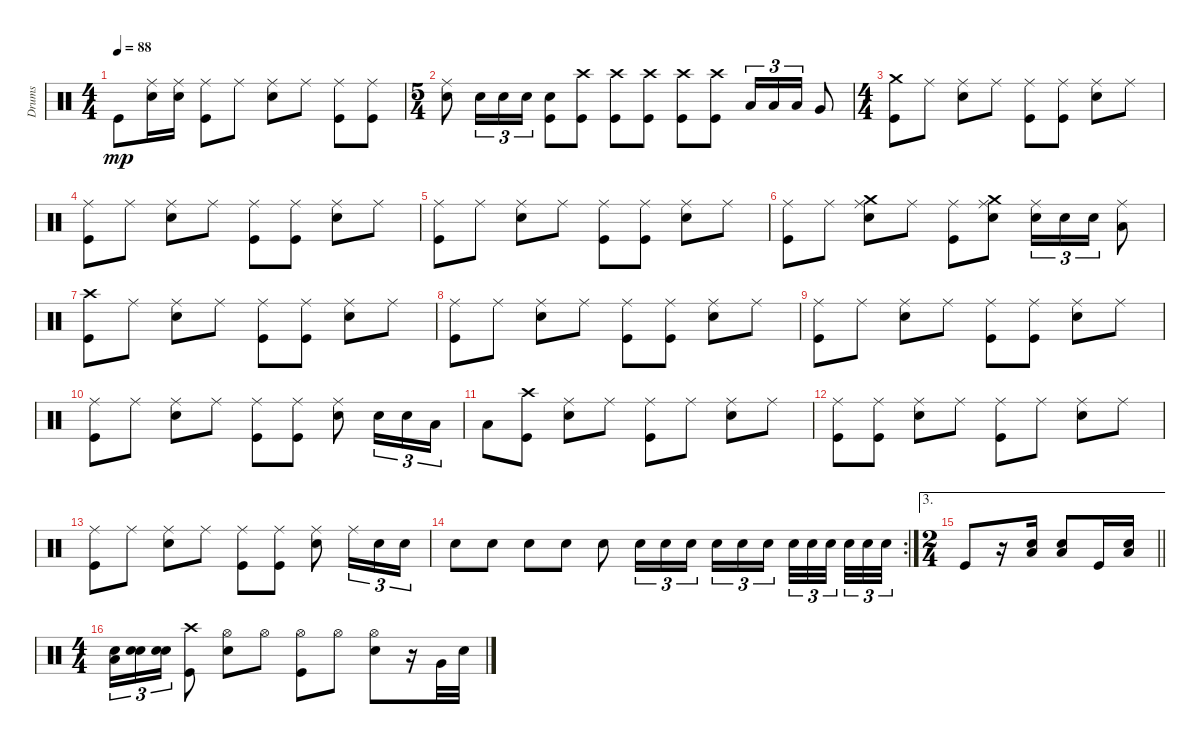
\track ("Drums" "Drums") {instrument percussion}
\staff {score}
\articulation defaults
\ts (4 4)
\tempo 88
\clef neutral
\ks c "Kick (hit)".8{dy mp}
("Snare (hit) 2" "Ride (middle)").16 ("Snare (hit) 2" "Ride (middle)").16 ("Ride (middle)" "Kick (hit)").8 "Ride (middle)".8 ("Ride (middle)" "Snare (hit) 2").8 "Ride (middle)".8 ("Kick (hit)" "Ride (middle)").8 ("Ride (middle)" "Kick (hit)").8 |
\ts (5 4)
("Snare (hit) 2" "Ride (middle)").8 "Snare (hit) 2".16{tu (3 2)} "Snare (hit) 2".16{tu (3 2)} "Snare (hit) 2".16{tu (3 2)} ("Kick (hit)" "Snare (hit) 2").8 ("Kick (hit)" "Crash high (hit)").8 ("Crash high (hit)" "Kick (hit)").8 ("Kick (hit)" "Crash high (hit)").8 ("Crash high (hit)" "Kick (hit)").8 ("Crash high (hit)" "Kick (hit)").8 "Low Tom (hit)".16{tu (3 2)} "Low Tom (hit)".16{tu (3 2)} "Low Tom (hit)".16{tu (3 2)} "Very Low Tom (hit)".8 |
\ts (4 4)
("Crash medium (hit)" "Kick (hit)").8 "Ride (middle)".8 ("Ride (middle)" "Snare (hit) 2").8 "Ride (middle)".8 ("Kick (hit)" "Ride (middle)").8 ("Ride (middle)" "Kick (hit)").8 ("Snare (hit) 2" "Ride (middle)").8 "Ride (middle)".8 |
("Ride (middle)" "Kick (hit)").8 "Ride (middle)".8 ("Ride (middle)" "Snare (hit) 2").8 "Ride (middle)".8 ("Kick (hit)" "Ride (middle)").8 ("Ride (middle)" "Kick (hit)").8 ("Snare (hit) 2" "Ride (middle)").8 "Ride (middle)".8 |
("Ride (middle)" "Kick (hit)").8 "Ride (middle)".8 ("Ride (middle)" "Snare (hit) 2").8 "Ride (middle)".8 ("Kick (hit)" "Ride (middle)").8 ("Ride (middle)" "Kick (hit)").8 ("Snare (hit) 2" "Ride (middle)").8 "Ride (middle)".8 |
("Ride (middle)" "Kick (hit)").8 "Ride (middle)".8 ("Crash medium (hit)" "Ride (middle)" "Snare (hit) 2").8 "Ride (middle)".8 ("Kick (hit)" "Ride (middle)").8 ("Crash medium (hit)" "Ride (middle)" "Snare (hit) 2").8 ("Snare (hit) 2" "Ride (middle)").16{tu (3 2)} "Snare (hit) 2".16{tu (3 2)} "Snare (hit) 2".16{tu (3 2)} ("Low Tom (hit)" "Ride (middle)").8 |
("Crash high (hit)" "Kick (hit)").8 "Ride (middle)".8 ("Ride (middle)" "Snare (hit) 2").8 "Ride (middle)".8 ("Kick (hit)" "Ride (middle)").8 ("Ride (middle)" "Kick (hit)").8 ("Snare (hit) 2" "Ride (middle)").8 "Ride (middle)".8 |
("Ride (middle)" "Kick (hit)").8 "Ride (middle)".8 ("Ride (middle)" "Snare (hit) 2").8 "Ride (middle)".8 ("Kick (hit)" "Ride (middle)").8 ("Ride (middle)" "Kick (hit)").8 ("Snare (hit) 2" "Ride (middle)").8 "Ride (middle)".8 |
("Ride (middle)" "Kick (hit)").8 "Ride (middle)".8 ("Ride (middle)" "Snare (hit) 2").8 "Ride (middle)".8 ("Kick (hit)" "Ride (middle)").8 ("Ride (middle)" "Kick (hit)").8 ("Snare (hit) 2" "Ride (middle)").8 "Ride (middle)".8 |
("Ride (middle)" "Kick (hit)").8 "Ride (middle)".8 ("Ride (middle)" "Snare (hit) 2").8 "Ride (middle)".8 ("Kick (hit)" "Ride (middle)").8 ("Ride (middle)" "Kick (hit)").8 ("Snare (hit) 2" "Ride (middle)").8 "Snare (hit) 2".16{tu (3 2)} "Snare (hit) 2".16{tu (3 2)} "Low Tom (hit)".16{tu (3 2)} |
"Low Tom (hit)".8 ("Crash high (hit)" "Kick (hit)").8 ("Ride (middle)" "Snare (hit) 2").8 "Ride (middle)".8 ("Kick (hit)" "Ride (middle)").8 "Ride (middle)".8 ("Snare (hit) 2" "Ride (middle)").8 "Ride (middle)".8 |
("Ride (middle)" "Kick (hit)").8 ("Ride (middle)" "Kick (hit)").8 ("Ride (middle)" "Snare (hit) 2").8 "Ride (middle)".8 ("Kick (hit)" "Ride (middle)").8 "Ride (middle)".8 ("Snare (hit) 2" "Ride (middle)").8 "Ride (middle)".8 |
("Ride (middle)" "Kick (hit)").8 "Ride (middle)".8 ("Ride (middle)" "Snare (hit) 2").8 "Ride (middle)".8 ("Kick (hit)" "Ride (middle)").8 ("Ride (middle)" "Kick (hit)").8 ("Snare (hit) 2" "Ride (middle)").8 "Ride (middle)".16{tu (3 2)} "Snare (hit) 2".16{tu (3 2)} "Snare (hit) 2".16{tu (3 2)} |
\rc 2 "Snare (hit) 2".8 "Snare (hit) 2".8 "Snare (hit) 2".8 "Snare (hit) 2".8 "Snare (hit) 2".8 "Snare (hit) 2".16{tu (3 2)} "Snare (hit) 2".16{tu (3 2)} "Snare (hit) 2".16{tu (3 2)} "Snare (hit) 2".16{tu (3 2)} "Snare (hit) 2".16{tu (3 2)} "Snare (hit) 2".16{tu (3 2) beam splitsecondary} "Snare (hit) 2".32{tu (3 2)} "Snare (hit) 2".32{tu (3 2)} "Snare (hit) 2".32{tu (3 2) beam splitsecondary} "Snare (hit) 2".32{tu (3 2)} "Snare (hit) 2".32{tu (3 2)} "Snare (hit) 2".32{tu (3 2)}
|
\ae 3
\ts (2 4)
\barLineRight lightlight "Kick (hit)".8
r.16 ("Snare (hit) 2" "Low Floor Tom (hit)").16 ("Snare (hit) 2" "Low Floor Tom (hit)").8 "Kick (hit)".16 ("Low Floor Tom (hit)" "Snare (hit) 2").16 |
\ts (4 4)
("Snare (hit) 2" "Low Floor Tom (hit)").16{tu (3 2)} ("Snare (hit) 2" "Electric Snare (hit)").16{tu (3 2)} ("Snare (hit) 2" "Electric Snare (hit)").16{tu (3 2)} ("Kick (hit)" "Crash high (hit)").8 ("Hi-Hat (open)" "Snare (hit) 2").8 "Hi-Hat (open)".8 ("Kick (hit)" "Hi-Hat (open)").8 "Hi-Hat (open)".8 ("Hi-Hat (open)" "Snare (hit) 2").8 r.16 "Very Low Tom (hit)".32 "Snare (hit) 2".32
